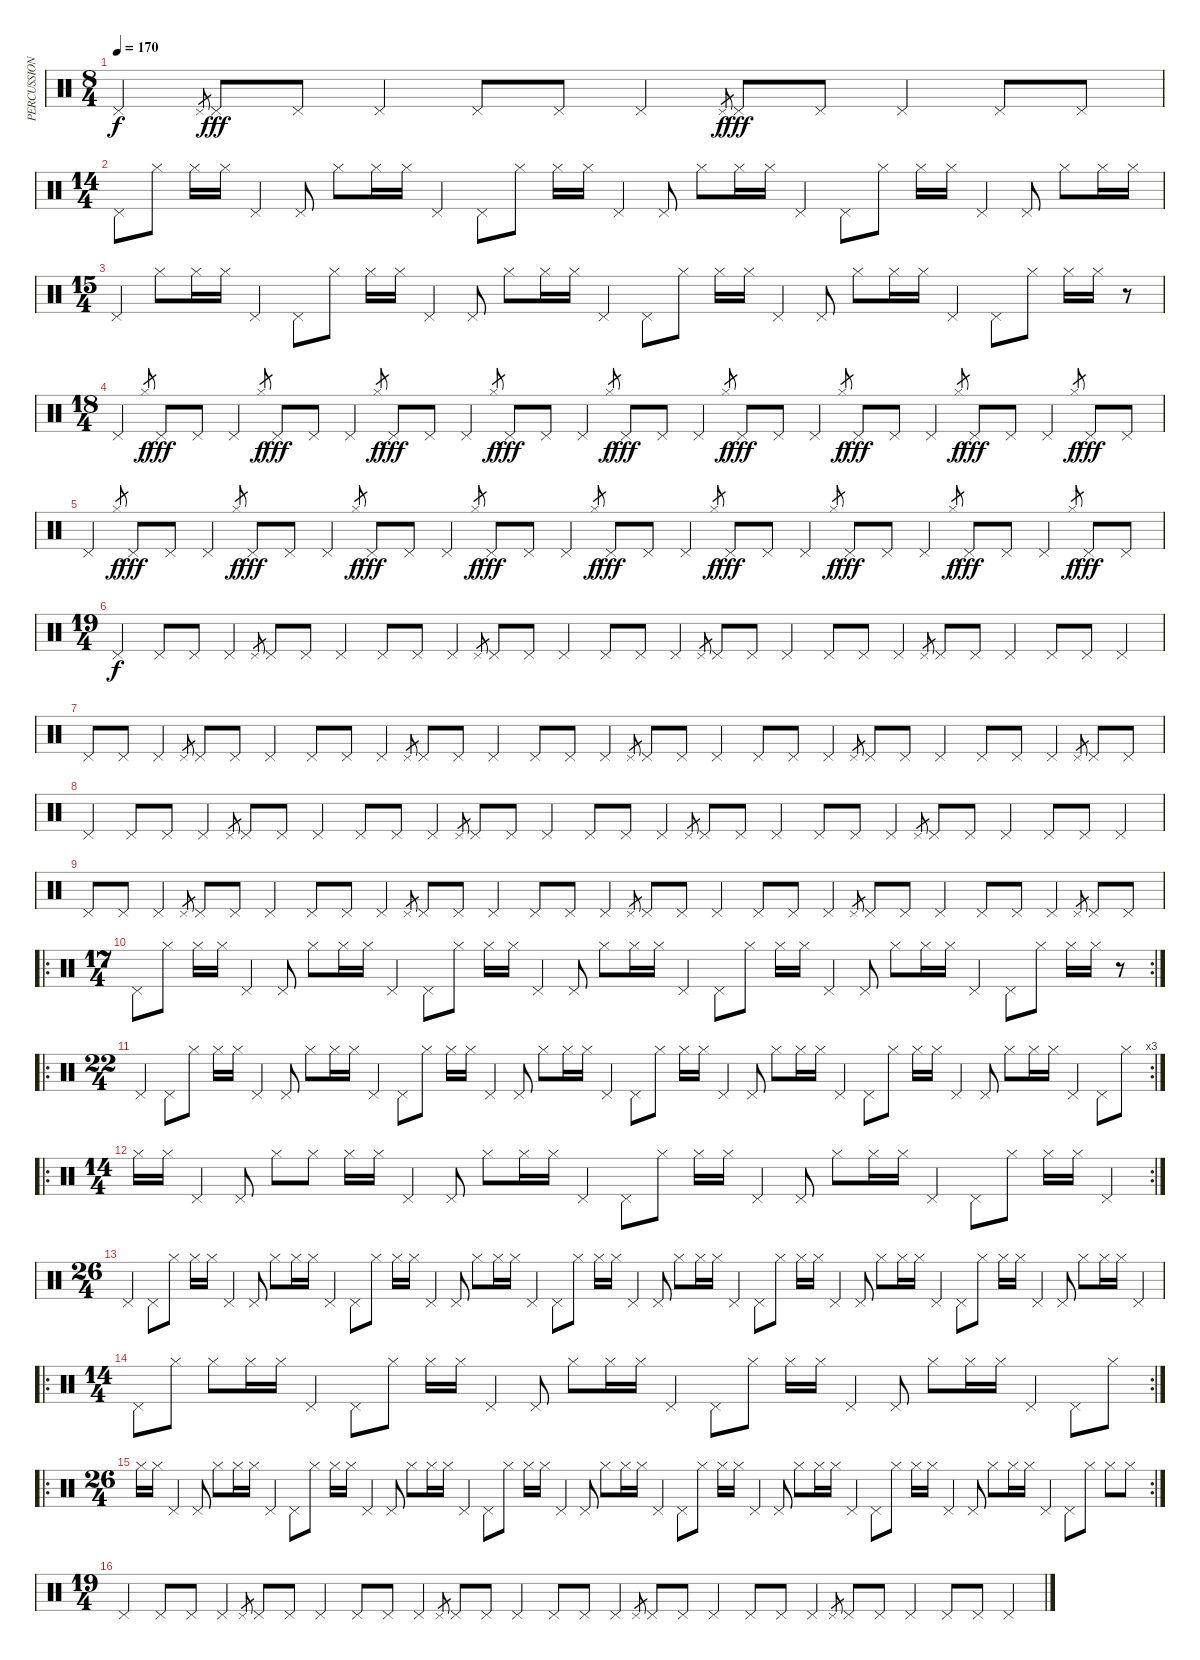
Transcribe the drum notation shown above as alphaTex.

\track ("PERCUSSION" "PERCUSSION") {instrument percussion}
\staff {score}
\articulation defaults
\ts (8 4)
\tempo 170
\clef neutral
\ks c "Pedal Hi-Hat (hit)".4{dy f} "Pedal Hi-Hat (hit)".8{gr} "Pedal Hi-Hat (hit)".8{dy fff} "Pedal Hi-Hat (hit)".8 "Pedal Hi-Hat (hit)".4 "Pedal Hi-Hat (hit)".8 "Pedal Hi-Hat (hit)".8 "Pedal Hi-Hat (hit)".4 "Pedal Hi-Hat (hit)".8{gr dy f} "Pedal Hi-Hat (hit)".8{dy fff} "Pedal Hi-Hat (hit)".8 "Pedal Hi-Hat (hit)".4 "Pedal Hi-Hat (hit)".8 "Pedal Hi-Hat (hit)".8
|
\ts (14 4)
"Pedal Hi-Hat (hit)".8 "Hi-Hat (closed)".8 "Hi-Hat (closed)".16 "Hi-Hat (closed)".16 "Pedal Hi-Hat (hit)".4 "Pedal Hi-Hat (hit)".8 "Hi-Hat (closed)".8 "Hi-Hat (closed)".16 "Hi-Hat (closed)".16 "Pedal Hi-Hat (hit)".4 "Pedal Hi-Hat (hit)".8 "Hi-Hat (closed)".8 "Hi-Hat (closed)".16 "Hi-Hat (closed)".16 "Pedal Hi-Hat (hit)".4 "Pedal Hi-Hat (hit)".8 "Hi-Hat (closed)".8 "Hi-Hat (closed)".16 "Hi-Hat (closed)".16 "Pedal Hi-Hat (hit)".4 "Pedal Hi-Hat (hit)".8 "Hi-Hat (closed)".8 "Hi-Hat (closed)".16 "Hi-Hat (closed)".16 "Pedal Hi-Hat (hit)".4 "Pedal Hi-Hat (hit)".8 "Hi-Hat (closed)".8 "Hi-Hat (closed)".16 "Hi-Hat (closed)".16 |
\ts (15 4)
"Pedal Hi-Hat (hit)".4 "Hi-Hat (closed)".8 "Hi-Hat (closed)".16 "Hi-Hat (closed)".16 "Pedal Hi-Hat (hit)".4 "Pedal Hi-Hat (hit)".8 "Hi-Hat (closed)".8 "Hi-Hat (closed)".16 "Hi-Hat (closed)".16 "Pedal Hi-Hat (hit)".4 "Pedal Hi-Hat (hit)".8 "Hi-Hat (closed)".8 "Hi-Hat (closed)".16 "Hi-Hat (closed)".16 "Pedal Hi-Hat (hit)".4 "Pedal Hi-Hat (hit)".8 "Hi-Hat (closed)".8 "Hi-Hat (closed)".16 "Hi-Hat (closed)".16 "Pedal Hi-Hat (hit)".4 "Pedal Hi-Hat (hit)".8 "Hi-Hat (closed)".8 "Hi-Hat (closed)".16 "Hi-Hat (closed)".16 "Pedal Hi-Hat (hit)".4 "Pedal Hi-Hat (hit)".8 "Hi-Hat (closed)".8 "Hi-Hat (closed)".16 "Hi-Hat (closed)".16 r.8 |
\ts (18 4)
"Pedal Hi-Hat (hit)".4 "Hi-Hat (closed)".8{gr dy f} "Pedal Hi-Hat (hit)".8{dy fff} "Pedal Hi-Hat (hit)".8 "Pedal Hi-Hat (hit)".4 "Hi-Hat (closed)".8{gr dy f} "Pedal Hi-Hat (hit)".8{dy fff} "Pedal Hi-Hat (hit)".8 "Pedal Hi-Hat (hit)".4 "Hi-Hat (closed)".8{gr dy f} "Pedal Hi-Hat (hit)".8{dy fff} "Pedal Hi-Hat (hit)".8 "Pedal Hi-Hat (hit)".4 "Hi-Hat (closed)".8{gr dy f} "Pedal Hi-Hat (hit)".8{dy fff} "Pedal Hi-Hat (hit)".8 "Pedal Hi-Hat (hit)".4 "Hi-Hat (closed)".8{gr dy f} "Pedal Hi-Hat (hit)".8{dy fff} "Pedal Hi-Hat (hit)".8 "Pedal Hi-Hat (hit)".4 "Hi-Hat (closed)".8{gr dy f} "Pedal Hi-Hat (hit)".8{dy fff} "Pedal Hi-Hat (hit)".8 "Pedal Hi-Hat (hit)".4 "Hi-Hat (closed)".8{gr dy f} "Pedal Hi-Hat (hit)".8{dy fff} "Pedal Hi-Hat (hit)".8 "Pedal Hi-Hat (hit)".4 "Hi-Hat (closed)".8{gr dy f} "Pedal Hi-Hat (hit)".8{dy fff} "Pedal Hi-Hat (hit)".8 "Pedal Hi-Hat (hit)".4 "Hi-Hat (closed)".8{gr dy f} "Pedal Hi-Hat (hit)".8{dy fff} "Pedal Hi-Hat (hit)".8 |
"Pedal Hi-Hat (hit)".4 "Hi-Hat (closed)".8{gr dy f} "Pedal Hi-Hat (hit)".8{dy fff} "Pedal Hi-Hat (hit)".8 "Pedal Hi-Hat (hit)".4 "Hi-Hat (closed)".8{gr dy f} "Pedal Hi-Hat (hit)".8{dy fff} "Pedal Hi-Hat (hit)".8 "Pedal Hi-Hat (hit)".4 "Hi-Hat (closed)".8{gr dy f} "Pedal Hi-Hat (hit)".8{dy fff} "Pedal Hi-Hat (hit)".8 "Pedal Hi-Hat (hit)".4 "Hi-Hat (closed)".8{gr dy f} "Pedal Hi-Hat (hit)".8{dy fff} "Pedal Hi-Hat (hit)".8 "Pedal Hi-Hat (hit)".4 "Hi-Hat (closed)".8{gr dy f} "Pedal Hi-Hat (hit)".8{dy fff} "Pedal Hi-Hat (hit)".8 "Pedal Hi-Hat (hit)".4 "Hi-Hat (closed)".8{gr dy f} "Pedal Hi-Hat (hit)".8{dy fff} "Pedal Hi-Hat (hit)".8 "Pedal Hi-Hat (hit)".4 "Hi-Hat (closed)".8{gr dy f} "Pedal Hi-Hat (hit)".8{dy fff} "Pedal Hi-Hat (hit)".8 "Pedal Hi-Hat (hit)".4 "Hi-Hat (closed)".8{gr dy f} "Pedal Hi-Hat (hit)".8{dy fff} "Pedal Hi-Hat (hit)".8 "Pedal Hi-Hat (hit)".4 "Hi-Hat (closed)".8{gr dy f} "Pedal Hi-Hat (hit)".8{dy fff} "Pedal Hi-Hat (hit)".8 |
\ts (19 4)
"Pedal Hi-Hat (hit)".4{dy f} "Pedal Hi-Hat (hit)".8 "Pedal Hi-Hat (hit)".8 "Pedal Hi-Hat (hit)".4 "Pedal Hi-Hat (hit)".8{gr} "Pedal Hi-Hat (hit)".8 "Pedal Hi-Hat (hit)".8 "Pedal Hi-Hat (hit)".4 "Pedal Hi-Hat (hit)".8 "Pedal Hi-Hat (hit)".8 "Pedal Hi-Hat (hit)".4 "Pedal Hi-Hat (hit)".8{gr} "Pedal Hi-Hat (hit)".8 "Pedal Hi-Hat (hit)".8 "Pedal Hi-Hat (hit)".4 "Pedal Hi-Hat (hit)".8 "Pedal Hi-Hat (hit)".8 "Pedal Hi-Hat (hit)".4 "Pedal Hi-Hat (hit)".8{gr} "Pedal Hi-Hat (hit)".8 "Pedal Hi-Hat (hit)".8 "Pedal Hi-Hat (hit)".4 "Pedal Hi-Hat (hit)".8 "Pedal Hi-Hat (hit)".8 "Pedal Hi-Hat (hit)".4 "Pedal Hi-Hat (hit)".8{gr} "Pedal Hi-Hat (hit)".8 "Pedal Hi-Hat (hit)".8 "Pedal Hi-Hat (hit)".4 "Pedal Hi-Hat (hit)".8 "Pedal Hi-Hat (hit)".8 "Pedal Hi-Hat (hit)".4 |
"Pedal Hi-Hat (hit)".8 "Pedal Hi-Hat (hit)".8 "Pedal Hi-Hat (hit)".4 "Pedal Hi-Hat (hit)".8{gr} "Pedal Hi-Hat (hit)".8 "Pedal Hi-Hat (hit)".8 "Pedal Hi-Hat (hit)".4 "Pedal Hi-Hat (hit)".8 "Pedal Hi-Hat (hit)".8 "Pedal Hi-Hat (hit)".4 "Pedal Hi-Hat (hit)".8{gr} "Pedal Hi-Hat (hit)".8 "Pedal Hi-Hat (hit)".8 "Pedal Hi-Hat (hit)".4 "Pedal Hi-Hat (hit)".8 "Pedal Hi-Hat (hit)".8 "Pedal Hi-Hat (hit)".4 "Pedal Hi-Hat (hit)".8{gr} "Pedal Hi-Hat (hit)".8 "Pedal Hi-Hat (hit)".8 "Pedal Hi-Hat (hit)".4 "Pedal Hi-Hat (hit)".8 "Pedal Hi-Hat (hit)".8 "Pedal Hi-Hat (hit)".4 "Pedal Hi-Hat (hit)".8{gr} "Pedal Hi-Hat (hit)".8 "Pedal Hi-Hat (hit)".8 "Pedal Hi-Hat (hit)".4 "Pedal Hi-Hat (hit)".8 "Pedal Hi-Hat (hit)".8 "Pedal Hi-Hat (hit)".4 "Pedal Hi-Hat (hit)".8{gr} "Pedal Hi-Hat (hit)".8 "Pedal Hi-Hat (hit)".8 |
"Pedal Hi-Hat (hit)".4 "Pedal Hi-Hat (hit)".8 "Pedal Hi-Hat (hit)".8 "Pedal Hi-Hat (hit)".4 "Pedal Hi-Hat (hit)".8{gr} "Pedal Hi-Hat (hit)".8 "Pedal Hi-Hat (hit)".8 "Pedal Hi-Hat (hit)".4 "Pedal Hi-Hat (hit)".8 "Pedal Hi-Hat (hit)".8 "Pedal Hi-Hat (hit)".4 "Pedal Hi-Hat (hit)".8{gr} "Pedal Hi-Hat (hit)".8 "Pedal Hi-Hat (hit)".8 "Pedal Hi-Hat (hit)".4 "Pedal Hi-Hat (hit)".8 "Pedal Hi-Hat (hit)".8 "Pedal Hi-Hat (hit)".4 "Pedal Hi-Hat (hit)".8{gr} "Pedal Hi-Hat (hit)".8 "Pedal Hi-Hat (hit)".8 "Pedal Hi-Hat (hit)".4 "Pedal Hi-Hat (hit)".8 "Pedal Hi-Hat (hit)".8 "Pedal Hi-Hat (hit)".4 "Pedal Hi-Hat (hit)".8{gr} "Pedal Hi-Hat (hit)".8 "Pedal Hi-Hat (hit)".8 "Pedal Hi-Hat (hit)".4 "Pedal Hi-Hat (hit)".8 "Pedal Hi-Hat (hit)".8 "Pedal Hi-Hat (hit)".4 |
"Pedal Hi-Hat (hit)".8 "Pedal Hi-Hat (hit)".8 "Pedal Hi-Hat (hit)".4 "Pedal Hi-Hat (hit)".8{gr} "Pedal Hi-Hat (hit)".8 "Pedal Hi-Hat (hit)".8 "Pedal Hi-Hat (hit)".4 "Pedal Hi-Hat (hit)".8 "Pedal Hi-Hat (hit)".8 "Pedal Hi-Hat (hit)".4 "Pedal Hi-Hat (hit)".8{gr} "Pedal Hi-Hat (hit)".8 "Pedal Hi-Hat (hit)".8 "Pedal Hi-Hat (hit)".4 "Pedal Hi-Hat (hit)".8 "Pedal Hi-Hat (hit)".8 "Pedal Hi-Hat (hit)".4 "Pedal Hi-Hat (hit)".8{gr} "Pedal Hi-Hat (hit)".8 "Pedal Hi-Hat (hit)".8 "Pedal Hi-Hat (hit)".4 "Pedal Hi-Hat (hit)".8 "Pedal Hi-Hat (hit)".8 "Pedal Hi-Hat (hit)".4 "Pedal Hi-Hat (hit)".8{gr} "Pedal Hi-Hat (hit)".8 "Pedal Hi-Hat (hit)".8 "Pedal Hi-Hat (hit)".4 "Pedal Hi-Hat (hit)".8 "Pedal Hi-Hat (hit)".8 "Pedal Hi-Hat (hit)".4 "Pedal Hi-Hat (hit)".8{gr} "Pedal Hi-Hat (hit)".8 "Pedal Hi-Hat (hit)".8 |
\ro
\rc 2
\ts (17 4)
"Pedal Hi-Hat (hit)".8 "Hi-Hat (closed)".8 "Hi-Hat (closed)".16 "Hi-Hat (closed)".16 "Pedal Hi-Hat (hit)".4 "Pedal Hi-Hat (hit)".8 "Hi-Hat (closed)".8 "Hi-Hat (closed)".16 "Hi-Hat (closed)".16 "Pedal Hi-Hat (hit)".4 "Pedal Hi-Hat (hit)".8 "Hi-Hat (closed)".8 "Hi-Hat (closed)".16 "Hi-Hat (closed)".16 "Pedal Hi-Hat (hit)".4 "Pedal Hi-Hat (hit)".8 "Hi-Hat (closed)".8 "Hi-Hat (closed)".16 "Hi-Hat (closed)".16 "Pedal Hi-Hat (hit)".4 "Pedal Hi-Hat (hit)".8 "Hi-Hat (closed)".8 "Hi-Hat (closed)".16 "Hi-Hat (closed)".16 "Pedal Hi-Hat (hit)".4 "Pedal Hi-Hat (hit)".8 "Hi-Hat (closed)".8 "Hi-Hat (closed)".16 "Hi-Hat (closed)".16 "Pedal Hi-Hat (hit)".4 "Pedal Hi-Hat (hit)".8 "Hi-Hat (closed)".8 "Hi-Hat (closed)".16 "Hi-Hat (closed)".16 r.8 |
\ro
\rc 3
\ts (22 4)
"Pedal Hi-Hat (hit)".4 "Pedal Hi-Hat (hit)".8 "Hi-Hat (closed)".8 "Hi-Hat (closed)".16 "Hi-Hat (closed)".16 "Pedal Hi-Hat (hit)".4 "Pedal Hi-Hat (hit)".8 "Hi-Hat (closed)".8 "Hi-Hat (closed)".16 "Hi-Hat (closed)".16 "Pedal Hi-Hat (hit)".4 "Pedal Hi-Hat (hit)".8 "Hi-Hat (closed)".8 "Hi-Hat (closed)".16 "Hi-Hat (closed)".16 "Pedal Hi-Hat (hit)".4 "Pedal Hi-Hat (hit)".8 "Hi-Hat (closed)".8 "Hi-Hat (closed)".16 "Hi-Hat (closed)".16 "Pedal Hi-Hat (hit)".4 "Pedal Hi-Hat (hit)".8 "Hi-Hat (closed)".8 "Hi-Hat (closed)".16 "Hi-Hat (closed)".16 "Pedal Hi-Hat (hit)".4 "Pedal Hi-Hat (hit)".8 "Hi-Hat (closed)".8 "Hi-Hat (closed)".16 "Hi-Hat (closed)".16 "Pedal Hi-Hat (hit)".4 "Pedal Hi-Hat (hit)".8 "Hi-Hat (closed)".8 "Hi-Hat (closed)".16 "Hi-Hat (closed)".16 "Pedal Hi-Hat (hit)".4 "Pedal Hi-Hat (hit)".8 "Hi-Hat (closed)".8 "Hi-Hat (closed)".16 "Hi-Hat (closed)".16 "Pedal Hi-Hat (hit)".4 "Pedal Hi-Hat (hit)".8 "Hi-Hat (closed)".8 |
\ro
\rc 2
\ts (14 4)
"Hi-Hat (closed)".16 "Hi-Hat (closed)".16 "Pedal Hi-Hat (hit)".4 "Pedal Hi-Hat (hit)".8 "Hi-Hat (closed)".8 "Hi-Hat (closed)".8 "Hi-Hat (closed)".16 "Hi-Hat (closed)".16 "Pedal Hi-Hat (hit)".4 "Pedal Hi-Hat (hit)".8 "Hi-Hat (closed)".8 "Hi-Hat (closed)".16 "Hi-Hat (closed)".16 "Pedal Hi-Hat (hit)".4 "Pedal Hi-Hat (hit)".8 "Hi-Hat (closed)".8 "Hi-Hat (closed)".16 "Hi-Hat (closed)".16 "Pedal Hi-Hat (hit)".4 "Pedal Hi-Hat (hit)".8 "Hi-Hat (closed)".8 "Hi-Hat (closed)".16 "Hi-Hat (closed)".16 "Pedal Hi-Hat (hit)".4 "Pedal Hi-Hat (hit)".8 "Hi-Hat (closed)".8 "Hi-Hat (closed)".16 "Hi-Hat (closed)".16 "Pedal Hi-Hat (hit)".4 |
\ts (26 4)
"Pedal Hi-Hat (hit)".4 "Pedal Hi-Hat (hit)".8 "Hi-Hat (closed)".8 "Hi-Hat (closed)".16 "Hi-Hat (closed)".16 "Pedal Hi-Hat (hit)".4 "Pedal Hi-Hat (hit)".8 "Hi-Hat (closed)".8 "Hi-Hat (closed)".16 "Hi-Hat (closed)".16 "Pedal Hi-Hat (hit)".4 "Pedal Hi-Hat (hit)".8 "Hi-Hat (closed)".8 "Hi-Hat (closed)".16 "Hi-Hat (closed)".16 "Pedal Hi-Hat (hit)".4 "Pedal Hi-Hat (hit)".8 "Hi-Hat (closed)".8 "Hi-Hat (closed)".16 "Hi-Hat (closed)".16 "Pedal Hi-Hat (hit)".4 "Pedal Hi-Hat (hit)".8 "Hi-Hat (closed)".8 "Hi-Hat (closed)".16 "Hi-Hat (closed)".16 "Pedal Hi-Hat (hit)".4 "Pedal Hi-Hat (hit)".8 "Hi-Hat (closed)".8 "Hi-Hat (closed)".16 "Hi-Hat (closed)".16 "Pedal Hi-Hat (hit)".4 "Pedal Hi-Hat (hit)".8 "Hi-Hat (closed)".8 "Hi-Hat (closed)".16 "Hi-Hat (closed)".16 "Pedal Hi-Hat (hit)".4 "Pedal Hi-Hat (hit)".8 "Hi-Hat (closed)".8 "Hi-Hat (closed)".16 "Hi-Hat (closed)".16 "Pedal Hi-Hat (hit)".4 "Pedal Hi-Hat (hit)".8 "Hi-Hat (closed)".8 "Hi-Hat (closed)".16 "Hi-Hat (closed)".16 "Pedal Hi-Hat (hit)".4 "Pedal Hi-Hat (hit)".8 "Hi-Hat (closed)".8 "Hi-Hat (closed)".16 "Hi-Hat (closed)".16 "Pedal Hi-Hat (hit)".4 |
\ro
\rc 2
\ts (14 4)
"Pedal Hi-Hat (hit)".8 "Hi-Hat (closed)".8 "Hi-Hat (closed)".8 "Hi-Hat (closed)".16 "Hi-Hat (closed)".16 "Pedal Hi-Hat (hit)".4 "Pedal Hi-Hat (hit)".8 "Hi-Hat (closed)".8 "Hi-Hat (closed)".16 "Hi-Hat (closed)".16 "Pedal Hi-Hat (hit)".4 "Pedal Hi-Hat (hit)".8 "Hi-Hat (closed)".8 "Hi-Hat (closed)".16 "Hi-Hat (closed)".16 "Pedal Hi-Hat (hit)".4 "Pedal Hi-Hat (hit)".8 "Hi-Hat (closed)".8 "Hi-Hat (closed)".16 "Hi-Hat (closed)".16 "Pedal Hi-Hat (hit)".4 "Pedal Hi-Hat (hit)".8 "Hi-Hat (closed)".8 "Hi-Hat (closed)".16 "Hi-Hat (closed)".16 "Pedal Hi-Hat (hit)".4 "Pedal Hi-Hat (hit)".8 "Hi-Hat (closed)".8 |
\ro
\rc 2
\ts (26 4)
"Hi-Hat (closed)".16 "Hi-Hat (closed)".16 "Pedal Hi-Hat (hit)".4 "Pedal Hi-Hat (hit)".8 "Hi-Hat (closed)".8 "Hi-Hat (closed)".16 "Hi-Hat (closed)".16 "Pedal Hi-Hat (hit)".4 "Pedal Hi-Hat (hit)".8 "Hi-Hat (closed)".8 "Hi-Hat (closed)".16 "Hi-Hat (closed)".16 "Pedal Hi-Hat (hit)".4 "Pedal Hi-Hat (hit)".8 "Hi-Hat (closed)".8 "Hi-Hat (closed)".16 "Hi-Hat (closed)".16 "Pedal Hi-Hat (hit)".4 "Pedal Hi-Hat (hit)".8 "Hi-Hat (closed)".8 "Hi-Hat (closed)".16 "Hi-Hat (closed)".16 "Pedal Hi-Hat (hit)".4 "Pedal Hi-Hat (hit)".8 "Hi-Hat (closed)".8 "Hi-Hat (closed)".16 "Hi-Hat (closed)".16 "Pedal Hi-Hat (hit)".4 "Pedal Hi-Hat (hit)".8 "Hi-Hat (closed)".8 "Hi-Hat (closed)".16 "Hi-Hat (closed)".16 "Pedal Hi-Hat (hit)".4 "Pedal Hi-Hat (hit)".8 "Hi-Hat (closed)".8 "Hi-Hat (closed)".16 "Hi-Hat (closed)".16 "Pedal Hi-Hat (hit)".4 "Pedal Hi-Hat (hit)".8 "Hi-Hat (closed)".8 "Hi-Hat (closed)".16 "Hi-Hat (closed)".16 "Pedal Hi-Hat (hit)".4 "Pedal Hi-Hat (hit)".8 "Hi-Hat (closed)".8 "Hi-Hat (closed)".16 "Hi-Hat (closed)".16 "Pedal Hi-Hat (hit)".4 "Pedal Hi-Hat (hit)".8 "Hi-Hat (closed)".8 "Hi-Hat (closed)".8 "Hi-Hat (closed)".8 |
\ts (19 4)
"Pedal Hi-Hat (hit)".4 "Pedal Hi-Hat (hit)".8 "Pedal Hi-Hat (hit)".8 "Pedal Hi-Hat (hit)".4 "Pedal Hi-Hat (hit)".8{gr} "Pedal Hi-Hat (hit)".8 "Pedal Hi-Hat (hit)".8 "Pedal Hi-Hat (hit)".4 "Pedal Hi-Hat (hit)".8 "Pedal Hi-Hat (hit)".8 "Pedal Hi-Hat (hit)".4 "Pedal Hi-Hat (hit)".8{gr} "Pedal Hi-Hat (hit)".8 "Pedal Hi-Hat (hit)".8 "Pedal Hi-Hat (hit)".4 "Pedal Hi-Hat (hit)".8 "Pedal Hi-Hat (hit)".8 "Pedal Hi-Hat (hit)".4 "Pedal Hi-Hat (hit)".8{gr} "Pedal Hi-Hat (hit)".8 "Pedal Hi-Hat (hit)".8 "Pedal Hi-Hat (hit)".4 "Pedal Hi-Hat (hit)".8 "Pedal Hi-Hat (hit)".8 "Pedal Hi-Hat (hit)".4 "Pedal Hi-Hat (hit)".8{gr} "Pedal Hi-Hat (hit)".8 "Pedal Hi-Hat (hit)".8 "Pedal Hi-Hat (hit)".4 "Pedal Hi-Hat (hit)".8 "Pedal Hi-Hat (hit)".8 "Pedal Hi-Hat (hit)".4
